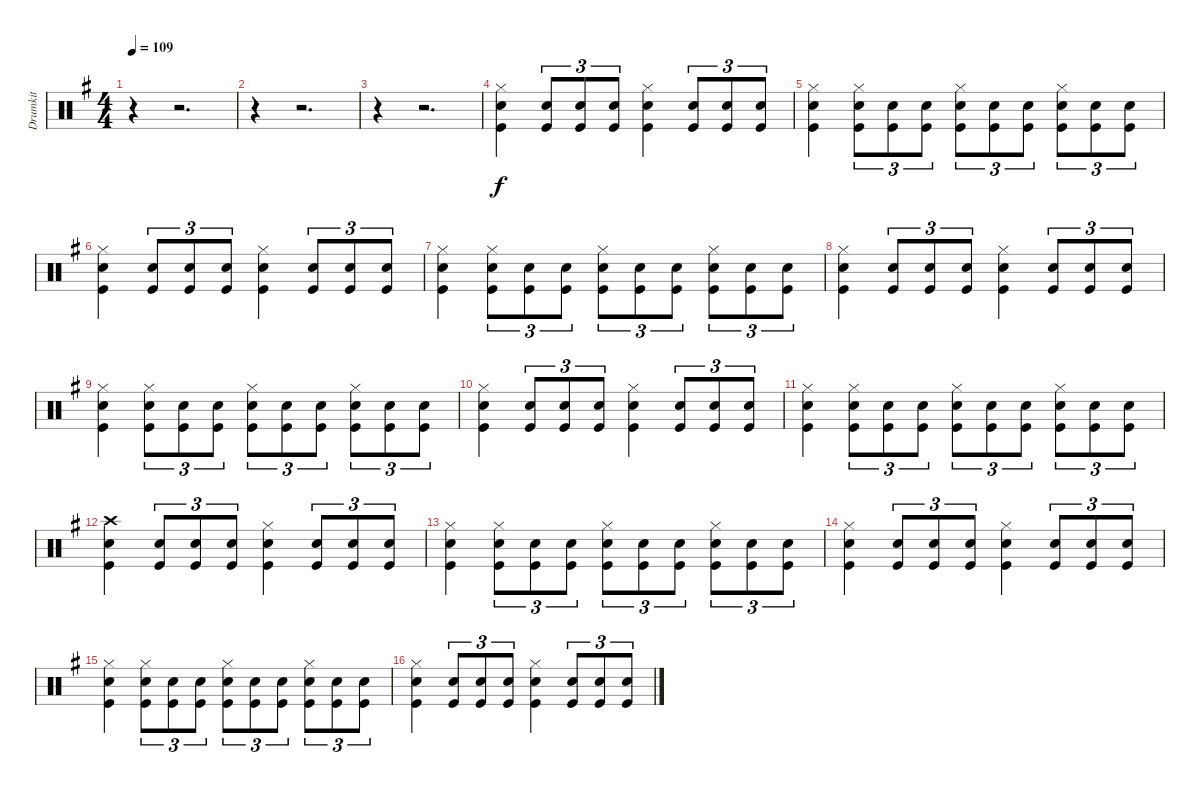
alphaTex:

\track ("Drumkit" "Drumkit") {instrument percussion}
\staff {score}
\articulation defaults
\ts (4 4)
\tempo 109
\clef neutral
\ks g
r.4{dy f} r.2{d} |
r.4 r.2{d} |
r.4 r.2{d} |
("Kick (hit)" "Snare (hit) 2" "Hi-Hat (closed)").4 ("Kick (hit)" "Snare (hit) 2").8{tu (3 2)} ("Kick (hit)" "Snare (hit) 2").8{tu (3 2)} ("Kick (hit)" "Snare (hit) 2").8{tu (3 2)} ("Kick (hit)" "Snare (hit) 2" "Hi-Hat (closed)").4 ("Kick (hit)" "Snare (hit) 2").8{tu (3 2)} ("Kick (hit)" "Snare (hit) 2").8{tu (3 2)} ("Kick (hit)" "Snare (hit) 2").8{tu (3 2)} |
("Kick (hit)" "Snare (hit) 2" "Hi-Hat (closed)").4 ("Kick (hit)" "Snare (hit) 2" "Hi-Hat (closed)").8{tu (3 2)} ("Kick (hit)" "Snare (hit) 2").8{tu (3 2)} ("Kick (hit)" "Snare (hit) 2").8{tu (3 2)} ("Kick (hit)" "Snare (hit) 2" "Hi-Hat (closed)").8{tu (3 2)} ("Kick (hit)" "Snare (hit) 2").8{tu (3 2)} ("Kick (hit)" "Snare (hit) 2").8{tu (3 2)} ("Kick (hit)" "Snare (hit) 2" "Hi-Hat (closed)").8{tu (3 2)} ("Kick (hit)" "Snare (hit) 2").8{tu (3 2)} ("Kick (hit)" "Snare (hit) 2").8{tu (3 2)} |
("Kick (hit)" "Snare (hit) 2" "Hi-Hat (closed)").4 ("Kick (hit)" "Snare (hit) 2").8{tu (3 2)} ("Kick (hit)" "Snare (hit) 2").8{tu (3 2)} ("Kick (hit)" "Snare (hit) 2").8{tu (3 2)} ("Kick (hit)" "Snare (hit) 2" "Hi-Hat (closed)").4 ("Kick (hit)" "Snare (hit) 2").8{tu (3 2)} ("Kick (hit)" "Snare (hit) 2").8{tu (3 2)} ("Kick (hit)" "Snare (hit) 2").8{tu (3 2)} |
("Kick (hit)" "Snare (hit) 2" "Hi-Hat (closed)").4 ("Kick (hit)" "Snare (hit) 2" "Hi-Hat (closed)").8{tu (3 2)} ("Kick (hit)" "Snare (hit) 2").8{tu (3 2)} ("Kick (hit)" "Snare (hit) 2").8{tu (3 2)} ("Kick (hit)" "Snare (hit) 2" "Hi-Hat (closed)").8{tu (3 2)} ("Kick (hit)" "Snare (hit) 2").8{tu (3 2)} ("Kick (hit)" "Snare (hit) 2").8{tu (3 2)} ("Kick (hit)" "Snare (hit) 2" "Hi-Hat (closed)").8{tu (3 2)} ("Kick (hit)" "Snare (hit) 2").8{tu (3 2)} ("Kick (hit)" "Snare (hit) 2").8{tu (3 2)} |
("Kick (hit)" "Snare (hit) 2" "Hi-Hat (closed)").4 ("Kick (hit)" "Snare (hit) 2").8{tu (3 2)} ("Kick (hit)" "Snare (hit) 2").8{tu (3 2)} ("Kick (hit)" "Snare (hit) 2").8{tu (3 2)} ("Kick (hit)" "Snare (hit) 2" "Hi-Hat (closed)").4 ("Kick (hit)" "Snare (hit) 2").8{tu (3 2)} ("Kick (hit)" "Snare (hit) 2").8{tu (3 2)} ("Kick (hit)" "Snare (hit) 2").8{tu (3 2)} |
("Kick (hit)" "Snare (hit) 2" "Hi-Hat (closed)").4 ("Kick (hit)" "Snare (hit) 2" "Hi-Hat (closed)").8{tu (3 2)} ("Kick (hit)" "Snare (hit) 2").8{tu (3 2)} ("Kick (hit)" "Snare (hit) 2").8{tu (3 2)} ("Kick (hit)" "Snare (hit) 2" "Hi-Hat (closed)").8{tu (3 2)} ("Kick (hit)" "Snare (hit) 2").8{tu (3 2)} ("Kick (hit)" "Snare (hit) 2").8{tu (3 2)} ("Kick (hit)" "Snare (hit) 2" "Hi-Hat (closed)").8{tu (3 2)} ("Kick (hit)" "Snare (hit) 2").8{tu (3 2)} ("Kick (hit)" "Snare (hit) 2").8{tu (3 2)} |
("Kick (hit)" "Snare (hit) 2" "Hi-Hat (closed)").4 ("Kick (hit)" "Snare (hit) 2").8{tu (3 2)} ("Kick (hit)" "Snare (hit) 2").8{tu (3 2)} ("Kick (hit)" "Snare (hit) 2").8{tu (3 2)} ("Kick (hit)" "Snare (hit) 2" "Hi-Hat (closed)").4 ("Kick (hit)" "Snare (hit) 2").8{tu (3 2)} ("Kick (hit)" "Snare (hit) 2").8{tu (3 2)} ("Kick (hit)" "Snare (hit) 2").8{tu (3 2)} |
("Kick (hit)" "Snare (hit) 2" "Hi-Hat (closed)").4 ("Kick (hit)" "Snare (hit) 2" "Hi-Hat (closed)").8{tu (3 2)} ("Kick (hit)" "Snare (hit) 2").8{tu (3 2)} ("Kick (hit)" "Snare (hit) 2").8{tu (3 2)} ("Kick (hit)" "Snare (hit) 2" "Hi-Hat (closed)").8{tu (3 2)} ("Kick (hit)" "Snare (hit) 2").8{tu (3 2)} ("Kick (hit)" "Snare (hit) 2").8{tu (3 2)} ("Kick (hit)" "Snare (hit) 2" "Hi-Hat (closed)").8{tu (3 2)} ("Kick (hit)" "Snare (hit) 2").8{tu (3 2)} ("Kick (hit)" "Snare (hit) 2").8{tu (3 2)} |
("Kick (hit)" "Snare (hit) 2" "Crash high (hit)").4 ("Kick (hit)" "Snare (hit) 2").8{tu (3 2)} ("Kick (hit)" "Snare (hit) 2").8{tu (3 2)} ("Kick (hit)" "Snare (hit) 2").8{tu (3 2)} ("Kick (hit)" "Snare (hit) 2" "Hi-Hat (closed)").4 ("Kick (hit)" "Snare (hit) 2").8{tu (3 2)} ("Kick (hit)" "Snare (hit) 2").8{tu (3 2)} ("Kick (hit)" "Snare (hit) 2").8{tu (3 2)} |
("Kick (hit)" "Snare (hit) 2" "Hi-Hat (closed)").4 ("Kick (hit)" "Snare (hit) 2" "Hi-Hat (closed)").8{tu (3 2)} ("Kick (hit)" "Snare (hit) 2").8{tu (3 2)} ("Kick (hit)" "Snare (hit) 2").8{tu (3 2)} ("Kick (hit)" "Snare (hit) 2" "Hi-Hat (closed)").8{tu (3 2)} ("Kick (hit)" "Snare (hit) 2").8{tu (3 2)} ("Kick (hit)" "Snare (hit) 2").8{tu (3 2)} ("Kick (hit)" "Snare (hit) 2" "Hi-Hat (closed)").8{tu (3 2)} ("Kick (hit)" "Snare (hit) 2").8{tu (3 2)} ("Kick (hit)" "Snare (hit) 2").8{tu (3 2)} |
("Kick (hit)" "Snare (hit) 2" "Hi-Hat (closed)").4 ("Kick (hit)" "Snare (hit) 2").8{tu (3 2)} ("Kick (hit)" "Snare (hit) 2").8{tu (3 2)} ("Kick (hit)" "Snare (hit) 2").8{tu (3 2)} ("Kick (hit)" "Snare (hit) 2" "Hi-Hat (closed)").4 ("Kick (hit)" "Snare (hit) 2").8{tu (3 2)} ("Kick (hit)" "Snare (hit) 2").8{tu (3 2)} ("Kick (hit)" "Snare (hit) 2").8{tu (3 2)} |
("Kick (hit)" "Snare (hit) 2" "Hi-Hat (closed)").4 ("Kick (hit)" "Snare (hit) 2" "Hi-Hat (closed)").8{tu (3 2)} ("Kick (hit)" "Snare (hit) 2").8{tu (3 2)} ("Kick (hit)" "Snare (hit) 2").8{tu (3 2)} ("Kick (hit)" "Snare (hit) 2" "Hi-Hat (closed)").8{tu (3 2)} ("Kick (hit)" "Snare (hit) 2").8{tu (3 2)} ("Kick (hit)" "Snare (hit) 2").8{tu (3 2)} ("Kick (hit)" "Snare (hit) 2" "Hi-Hat (closed)").8{tu (3 2)} ("Kick (hit)" "Snare (hit) 2").8{tu (3 2)} ("Kick (hit)" "Snare (hit) 2").8{tu (3 2)} |
("Kick (hit)" "Snare (hit) 2" "Hi-Hat (closed)").4 ("Kick (hit)" "Snare (hit) 2").8{tu (3 2)} ("Kick (hit)" "Snare (hit) 2").8{tu (3 2)} ("Kick (hit)" "Snare (hit) 2").8{tu (3 2)} ("Kick (hit)" "Snare (hit) 2" "Hi-Hat (closed)").4 ("Kick (hit)" "Snare (hit) 2").8{tu (3 2)} ("Kick (hit)" "Snare (hit) 2").8{tu (3 2)} ("Kick (hit)" "Snare (hit) 2").8{tu (3 2)}
